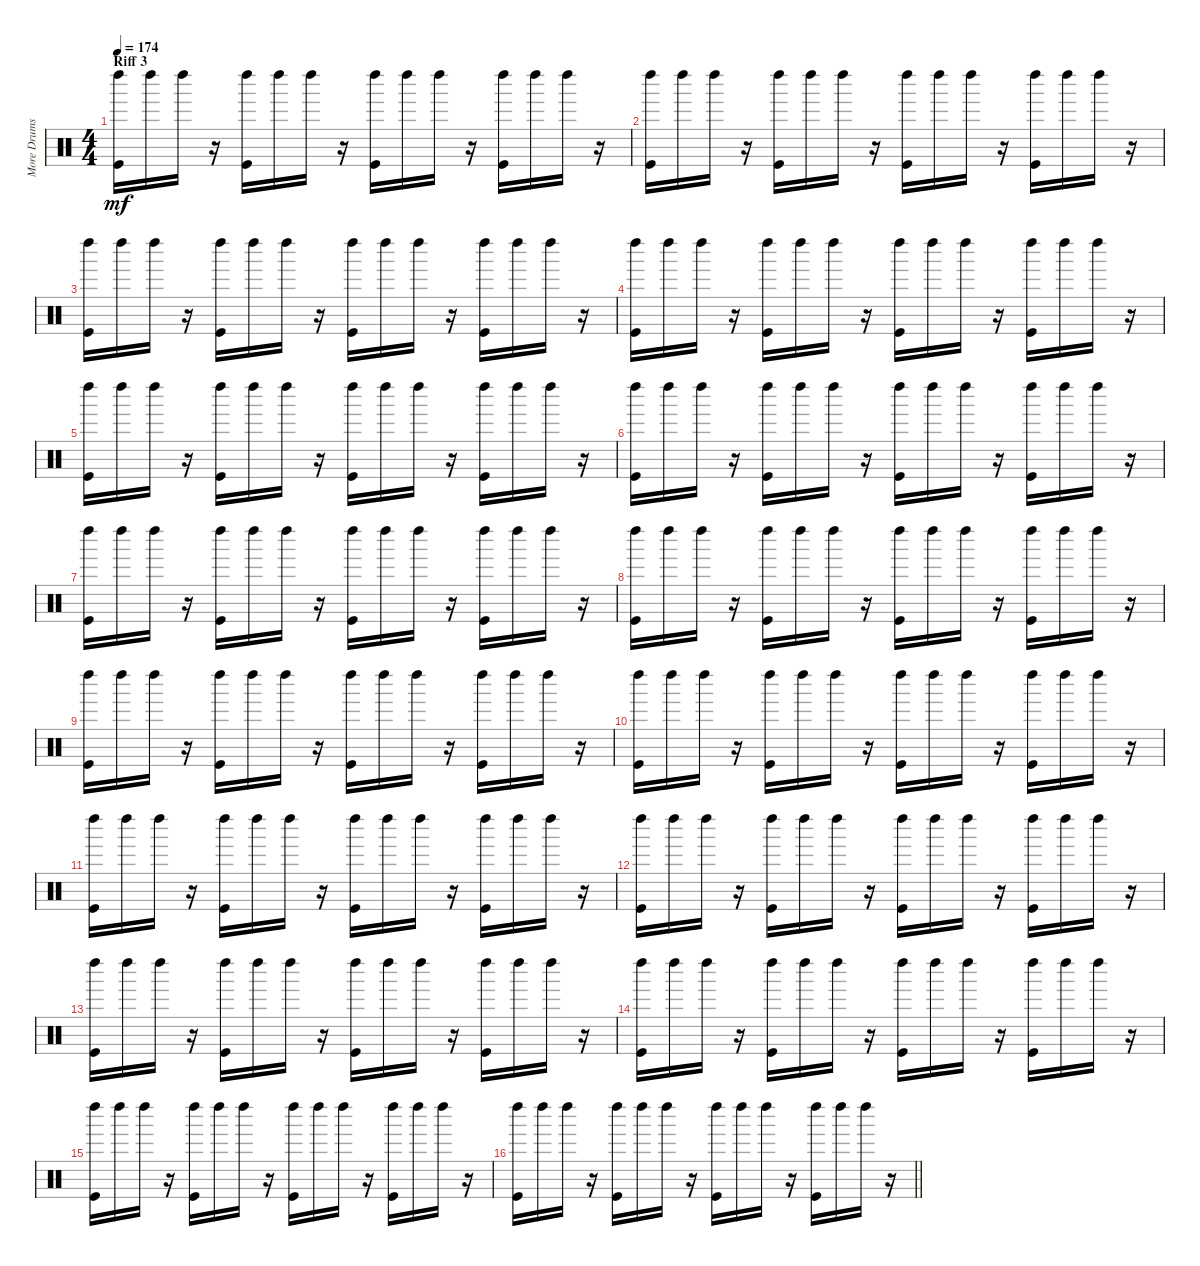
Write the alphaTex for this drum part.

\track ("More Drums" "More Drums") {instrument percussion}
\staff {score}
\articulation defaults
\ts (4 4)
\section ("" "Riff 3")
\tempo 174
\clef neutral
\ks c
("Kick (hit)" "Left Maraca (hit)").16{dy mf} "Left Maraca (hit)".16 "Left Maraca (hit)".16 r.16 ("Kick (hit)" "Left Maraca (hit)").16 "Left Maraca (hit)".16 "Left Maraca (hit)".16 r.16 ("Kick (hit)" "Left Maraca (hit)").16 "Left Maraca (hit)".16 "Left Maraca (hit)".16 r.16 ("Kick (hit)" "Left Maraca (hit)").16 "Left Maraca (hit)".16 "Left Maraca (hit)".16 r.16 |
("Kick (hit)" "Left Maraca (hit)").16 "Left Maraca (hit)".16 "Left Maraca (hit)".16 r.16 ("Kick (hit)" "Left Maraca (hit)").16 "Left Maraca (hit)".16 "Left Maraca (hit)".16 r.16 ("Kick (hit)" "Left Maraca (hit)").16 "Left Maraca (hit)".16 "Left Maraca (hit)".16 r.16 ("Kick (hit)" "Left Maraca (hit)").16 "Left Maraca (hit)".16 "Left Maraca (hit)".16 r.16 |
("Kick (hit)" "Left Maraca (hit)").16 "Left Maraca (hit)".16 "Left Maraca (hit)".16 r.16 ("Kick (hit)" "Left Maraca (hit)").16 "Left Maraca (hit)".16 "Left Maraca (hit)".16 r.16 ("Kick (hit)" "Left Maraca (hit)").16 "Left Maraca (hit)".16 "Left Maraca (hit)".16 r.16 ("Kick (hit)" "Left Maraca (hit)").16 "Left Maraca (hit)".16 "Left Maraca (hit)".16 r.16 |
("Kick (hit)" "Left Maraca (hit)").16 "Left Maraca (hit)".16 "Left Maraca (hit)".16 r.16 ("Kick (hit)" "Left Maraca (hit)").16 "Left Maraca (hit)".16 "Left Maraca (hit)".16 r.16 ("Kick (hit)" "Left Maraca (hit)").16 "Left Maraca (hit)".16 "Left Maraca (hit)".16 r.16 ("Kick (hit)" "Left Maraca (hit)").16 "Left Maraca (hit)".16 "Left Maraca (hit)".16 r.16 |
("Kick (hit)" "Left Maraca (hit)").16 "Left Maraca (hit)".16 "Left Maraca (hit)".16 r.16 ("Kick (hit)" "Left Maraca (hit)").16 "Left Maraca (hit)".16 "Left Maraca (hit)".16 r.16 ("Kick (hit)" "Left Maraca (hit)").16 "Left Maraca (hit)".16 "Left Maraca (hit)".16 r.16 ("Kick (hit)" "Left Maraca (hit)").16 "Left Maraca (hit)".16 "Left Maraca (hit)".16 r.16 |
("Kick (hit)" "Left Maraca (hit)").16 "Left Maraca (hit)".16 "Left Maraca (hit)".16 r.16 ("Kick (hit)" "Left Maraca (hit)").16 "Left Maraca (hit)".16 "Left Maraca (hit)".16 r.16 ("Kick (hit)" "Left Maraca (hit)").16 "Left Maraca (hit)".16 "Left Maraca (hit)".16 r.16 ("Kick (hit)" "Left Maraca (hit)").16 "Left Maraca (hit)".16 "Left Maraca (hit)".16 r.16 |
("Kick (hit)" "Left Maraca (hit)").16 "Left Maraca (hit)".16 "Left Maraca (hit)".16 r.16 ("Kick (hit)" "Left Maraca (hit)").16 "Left Maraca (hit)".16 "Left Maraca (hit)".16 r.16 ("Kick (hit)" "Left Maraca (hit)").16 "Left Maraca (hit)".16 "Left Maraca (hit)".16 r.16 ("Kick (hit)" "Left Maraca (hit)").16 "Left Maraca (hit)".16 "Left Maraca (hit)".16 r.16 |
("Kick (hit)" "Left Maraca (hit)").16 "Left Maraca (hit)".16 "Left Maraca (hit)".16 r.16 ("Kick (hit)" "Left Maraca (hit)").16 "Left Maraca (hit)".16 "Left Maraca (hit)".16 r.16 ("Kick (hit)" "Left Maraca (hit)").16 "Left Maraca (hit)".16 "Left Maraca (hit)".16 r.16 ("Kick (hit)" "Left Maraca (hit)").16 "Left Maraca (hit)".16 "Left Maraca (hit)".16 r.16 |
("Kick (hit)" "Left Maraca (hit)").16 "Left Maraca (hit)".16 "Left Maraca (hit)".16 r.16 ("Kick (hit)" "Left Maraca (hit)").16 "Left Maraca (hit)".16 "Left Maraca (hit)".16 r.16 ("Kick (hit)" "Left Maraca (hit)").16 "Left Maraca (hit)".16 "Left Maraca (hit)".16 r.16 ("Kick (hit)" "Left Maraca (hit)").16 "Left Maraca (hit)".16 "Left Maraca (hit)".16 r.16 |
("Kick (hit)" "Left Maraca (hit)").16 "Left Maraca (hit)".16 "Left Maraca (hit)".16 r.16 ("Kick (hit)" "Left Maraca (hit)").16 "Left Maraca (hit)".16 "Left Maraca (hit)".16 r.16 ("Kick (hit)" "Left Maraca (hit)").16 "Left Maraca (hit)".16 "Left Maraca (hit)".16 r.16 ("Kick (hit)" "Left Maraca (hit)").16 "Left Maraca (hit)".16 "Left Maraca (hit)".16 r.16 |
("Kick (hit)" "Left Maraca (hit)").16 "Left Maraca (hit)".16 "Left Maraca (hit)".16 r.16 ("Kick (hit)" "Left Maraca (hit)").16 "Left Maraca (hit)".16 "Left Maraca (hit)".16 r.16 ("Kick (hit)" "Left Maraca (hit)").16 "Left Maraca (hit)".16 "Left Maraca (hit)".16 r.16 ("Kick (hit)" "Left Maraca (hit)").16 "Left Maraca (hit)".16 "Left Maraca (hit)".16 r.16 |
("Kick (hit)" "Left Maraca (hit)").16 "Left Maraca (hit)".16 "Left Maraca (hit)".16 r.16 ("Kick (hit)" "Left Maraca (hit)").16 "Left Maraca (hit)".16 "Left Maraca (hit)".16 r.16 ("Kick (hit)" "Left Maraca (hit)").16 "Left Maraca (hit)".16 "Left Maraca (hit)".16 r.16 ("Kick (hit)" "Left Maraca (hit)").16 "Left Maraca (hit)".16 "Left Maraca (hit)".16 r.16 |
("Kick (hit)" "Left Maraca (hit)").16 "Left Maraca (hit)".16 "Left Maraca (hit)".16 r.16 ("Kick (hit)" "Left Maraca (hit)").16 "Left Maraca (hit)".16 "Left Maraca (hit)".16 r.16 ("Kick (hit)" "Left Maraca (hit)").16 "Left Maraca (hit)".16 "Left Maraca (hit)".16 r.16 ("Kick (hit)" "Left Maraca (hit)").16 "Left Maraca (hit)".16 "Left Maraca (hit)".16 r.16 |
("Kick (hit)" "Left Maraca (hit)").16 "Left Maraca (hit)".16 "Left Maraca (hit)".16 r.16 ("Kick (hit)" "Left Maraca (hit)").16 "Left Maraca (hit)".16 "Left Maraca (hit)".16 r.16 ("Kick (hit)" "Left Maraca (hit)").16 "Left Maraca (hit)".16 "Left Maraca (hit)".16 r.16 ("Kick (hit)" "Left Maraca (hit)").16 "Left Maraca (hit)".16 "Left Maraca (hit)".16 r.16 |
("Kick (hit)" "Left Maraca (hit)").16 "Left Maraca (hit)".16 "Left Maraca (hit)".16 r.16 ("Kick (hit)" "Left Maraca (hit)").16 "Left Maraca (hit)".16 "Left Maraca (hit)".16 r.16 ("Kick (hit)" "Left Maraca (hit)").16 "Left Maraca (hit)".16 "Left Maraca (hit)".16 r.16 ("Kick (hit)" "Left Maraca (hit)").16 "Left Maraca (hit)".16 "Left Maraca (hit)".16 r.16 |
\barLineRight lightlight
("Kick (hit)" "Left Maraca (hit)").16 "Left Maraca (hit)".16 "Left Maraca (hit)".16 r.16 ("Kick (hit)" "Left Maraca (hit)").16 "Left Maraca (hit)".16 "Left Maraca (hit)".16 r.16 ("Kick (hit)" "Left Maraca (hit)").16 "Left Maraca (hit)".16 "Left Maraca (hit)".16 r.16 ("Kick (hit)" "Left Maraca (hit)").16 "Left Maraca (hit)".16 "Left Maraca (hit)".16 r.16
